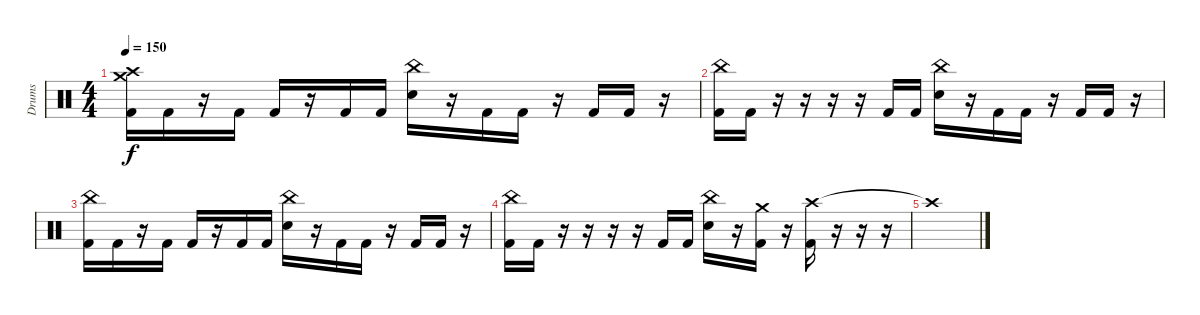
\track ("Drums" "Drums") {instrument percussion}
\staff {score}
\articulation defaults
\ts (4 4)
\tempo 150
\clef neutral
\ks c
("Crash medium (hit)" "Crash high (hit)" "Kick (hit) 2").16{dy f} "Kick (hit) 2".16 r.16 "Kick (hit) 2".16 "Kick (hit) 2".16 r.16 "Kick (hit) 2".16 "Kick (hit) 2".16 ("China (hit)" "Electric Snare (hit)").16 r.16 "Kick (hit) 2".16 "Kick (hit) 2".16 r.16 "Kick (hit) 2".16 "Kick (hit) 2".16 r.16 |
("China (hit)" "Kick (hit) 2").16 "Kick (hit) 2".16 r.16 r.16 r.16 r.16 "Kick (hit) 2".16 "Kick (hit) 2".16 ("China (hit)" "Electric Snare (hit)").16 r.16 "Kick (hit) 2".16 "Kick (hit) 2".16 r.16 "Kick (hit) 2".16 "Kick (hit) 2".16 r.16 |
("China (hit)" "Kick (hit) 2").16 "Kick (hit) 2".16 r.16 "Kick (hit) 2".16 "Kick (hit) 2".16 r.16 "Kick (hit) 2".16 "Kick (hit) 2".16 ("China (hit)" "Electric Snare (hit)").16 r.16 "Kick (hit) 2".16 "Kick (hit) 2".16 r.16 "Kick (hit) 2".16 "Kick (hit) 2".16 r.16 |
("China (hit)" "Kick (hit) 2").16 "Kick (hit) 2".16 r.16 r.16 r.16 r.16 "Kick (hit) 2".16 "Kick (hit) 2".16 ("China (hit)" "Electric Snare (hit)").16 r.16 ("Crash medium (hit)" "Kick (hit) 2").16 r.16 ("Crash high (hit)" "Kick (hit) 2").16 r.16 r.16 r.16 |
"Crash high (hit)"{t}.1
